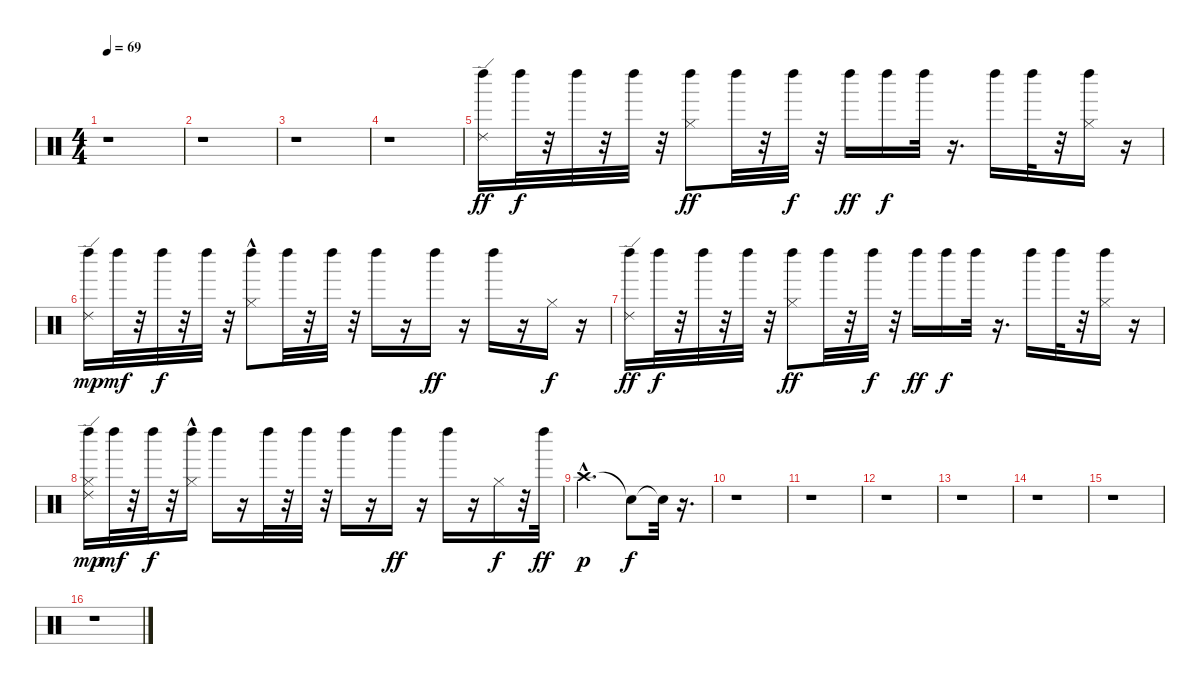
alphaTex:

\track "" {instrument percussion}
\staff {score}
\articulation defaults
\ts (4 4)
\tempo 69
\clef neutral
\ks c
r.1{dy ff} |
r.1 |
r.1 |
r.1 |
("Ride (edge) 2" "Left Maraca (hit)").16 "Left Maraca (hit)".32{dy f} r.32 "Left Maraca (hit)".32 r.32 "Left Maraca (hit)".32 r.32 ("Hi-Hat (closed)" "Left Maraca (hit)").8{dy ff} "Left Maraca (hit)".32 r.32 "Left Maraca (hit)".32{dy f} r.32 "Left Maraca (hit)".16{dy ff} "Left Maraca (hit)".16{dy f} "Left Maraca (hit)".32 r.16{d} "Left Maraca (hit)".16 "Left Maraca (hit)".32 r.32 ("Hi-Hat (closed)" "Left Maraca (hit)").16 r.16 |
("Left Maraca (hit)" "Ride (edge) 2").16{dy mp} "Left Maraca (hit)".32{dy mf} r.32 "Left Maraca (hit)".32{dy f} r.32 "Left Maraca (hit)".32 r.32 ("Hi-Hat (closed)"{hac} "Left Maraca (hit)").8 "Left Maraca (hit)".32 r.32 "Left Maraca (hit)".32 r.32 "Left Maraca (hit)".16 r.16 "Left Maraca (hit)".16{dy ff} r.16 "Left Maraca (hit)".16 r.16 "Hi-Hat (closed)".16{dy f} r.16 |
("Left Maraca (hit)" "Ride (edge) 2").16{dy ff} "Left Maraca (hit)".32{dy f} r.32 "Left Maraca (hit)".32 r.32 "Left Maraca (hit)".32 r.32 ("Left Maraca (hit)" "Hi-Hat (closed)").8{dy ff} "Left Maraca (hit)".32 r.32 "Left Maraca (hit)".32{dy f} r.32 "Left Maraca (hit)".16{dy ff} "Left Maraca (hit)".16{dy f} "Left Maraca (hit)".32 r.16{d} "Left Maraca (hit)".16 "Left Maraca (hit)".32 r.32 ("Left Maraca (hit)" "Hi-Hat (closed)").16 r.16 |
("Hi-Hat (closed)" "Left Maraca (hit)" "Ride (edge) 2").16{dy mp} "Left Maraca (hit)".32{dy mf} r.32 "Left Maraca (hit)".32{dy f} r.32 ("Left Maraca (hit)" "Hi-Hat (closed)"{hac}).16 "Left Maraca (hit)".16 r.16 "Left Maraca (hit)".32 r.32 "Left Maraca (hit)".32 r.32 "Left Maraca (hit)".16 r.16 "Left Maraca (hit)".16{dy ff} r.16 "Left Maraca (hit)".16 r.16 "Hi-Hat (closed)".16{dy f} r.32 "Left Maraca (hit)".32{dy ff} |
"Crash high (hit)"{hac}.2{d dy p} "Snare (hit)"{t}.8{dy f} "Snare (hit)"{t}.32 r.16{d} |
r.1 |
r.1 |
r.1 |
r.1 |
r.1 |
r.1 |
r.1
